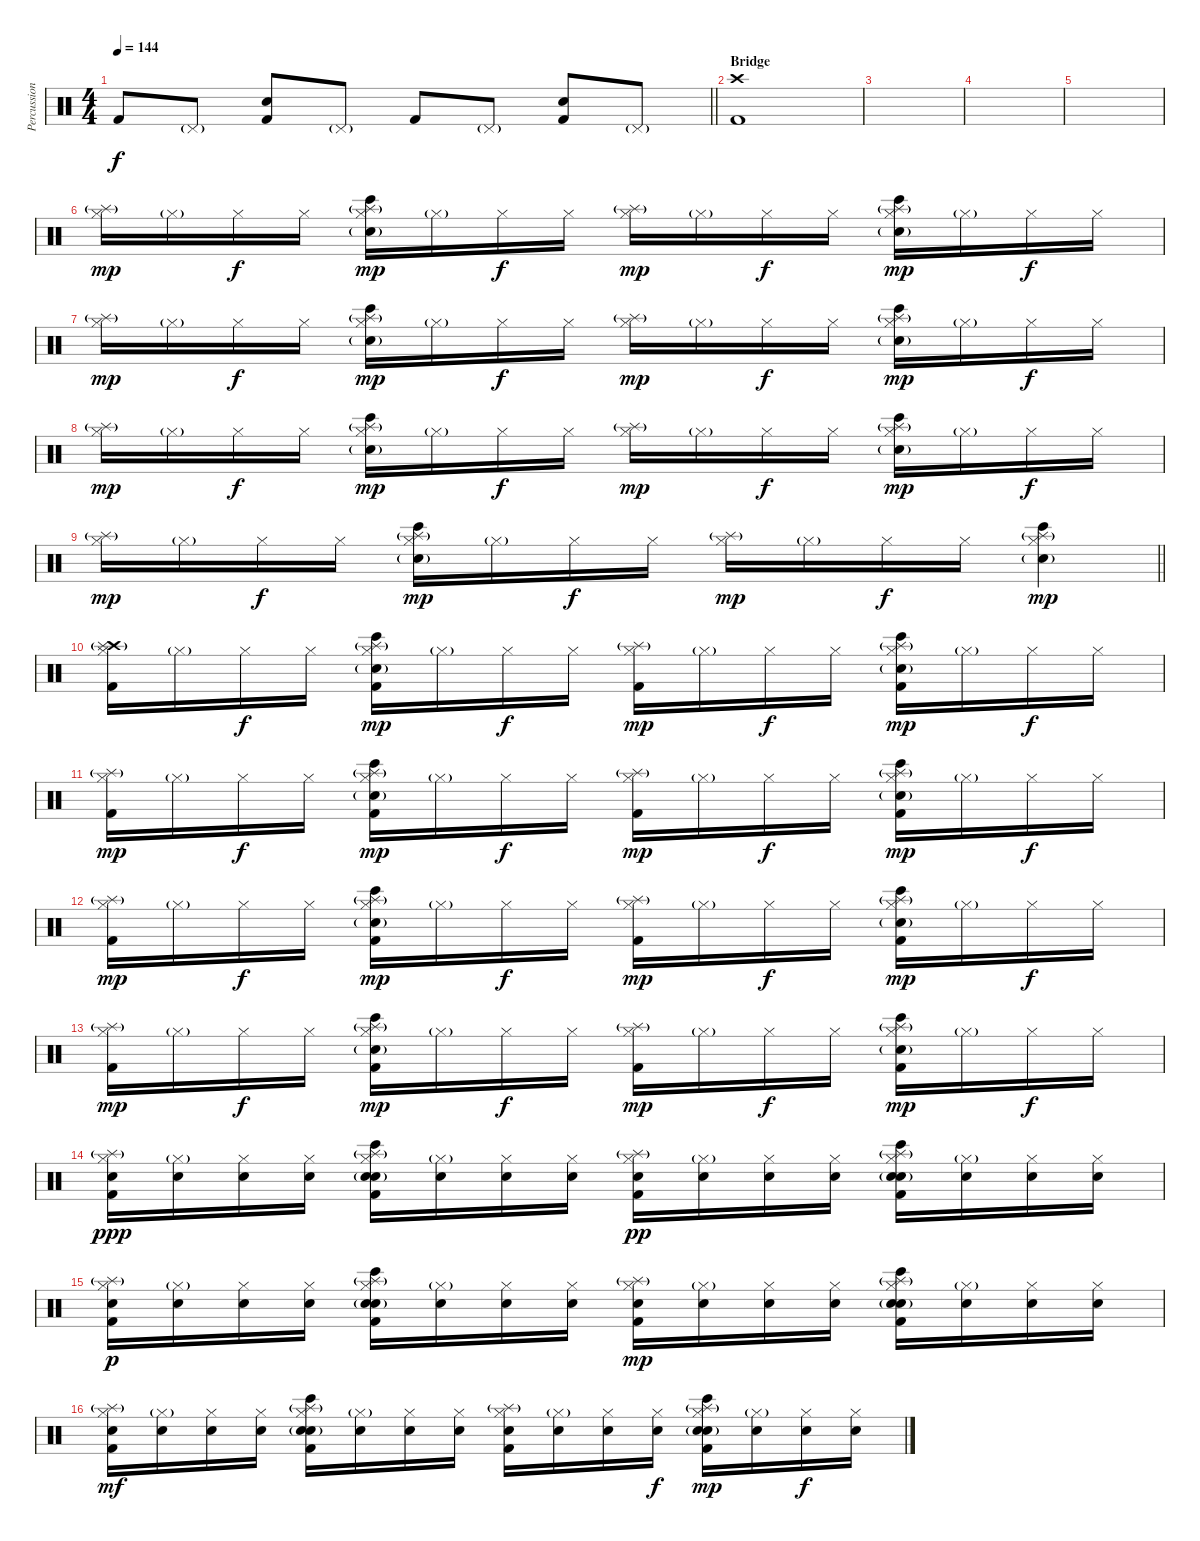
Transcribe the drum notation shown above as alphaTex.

\track ("Percussion" "Percussion") {instrument percussion}
\staff {score}
\articulation defaults
\ts (4 4)
\tempo 144
\clef neutral
\barLineRight lightlight
\ks c "Kick (hit) 2".8{dy f} "Pedal Hi-Hat (hit)"{g}.8
("Electric Snare (hit)" "Kick (hit) 2").8 "Pedal Hi-Hat (hit)"{g}.8 "Kick (hit) 2".8 "Pedal Hi-Hat (hit)"{g}.8 ("Electric Snare (hit)" "Kick (hit) 2").8 "Pedal Hi-Hat (hit)"{g}.8 |
\section ("" "Bridge")
("Crash high (hit)" "Kick (hit) 2").1 |
|
|
|
("Hi-Hat (closed)" "Splash (hit)"{g}).16{dy mp} "Hi-Hat (closed)"{g}.16 "Hi-Hat (closed)".16{dy f} "Hi-Hat (closed)".16 ("Hi-Hat (closed)" "Hand Clap (hit)"{g} "Splash (hit)"{g} "Bongo High (hit)").16{dy mp} "Hi-Hat (closed)"{g}.16 "Hi-Hat (closed)".16{dy f} "Hi-Hat (closed)".16 ("Hi-Hat (closed)" "Splash (hit)"{g}).16{dy mp} "Hi-Hat (closed)"{g}.16 "Hi-Hat (closed)".16{dy f} "Hi-Hat (closed)".16 ("Hi-Hat (closed)" "Hand Clap (hit)"{g} "Splash (hit)"{g} "Bongo High (hit)").16{dy mp} "Hi-Hat (closed)"{g}.16 "Hi-Hat (closed)".16{dy f} "Hi-Hat (closed)".16 |
("Hi-Hat (closed)" "Splash (hit)"{g}).16{dy mp} "Hi-Hat (closed)"{g}.16 "Hi-Hat (closed)".16{dy f} "Hi-Hat (closed)".16 ("Hi-Hat (closed)" "Hand Clap (hit)"{g} "Splash (hit)"{g} "Bongo High (hit)").16{dy mp} "Hi-Hat (closed)"{g}.16 "Hi-Hat (closed)".16{dy f} "Hi-Hat (closed)".16 ("Hi-Hat (closed)" "Splash (hit)"{g}).16{dy mp} "Hi-Hat (closed)"{g}.16 "Hi-Hat (closed)".16{dy f} "Hi-Hat (closed)".16 ("Hi-Hat (closed)" "Hand Clap (hit)"{g} "Splash (hit)"{g} "Bongo High (hit)").16{dy mp} "Hi-Hat (closed)"{g}.16 "Hi-Hat (closed)".16{dy f} "Hi-Hat (closed)".16 |
("Hi-Hat (closed)" "Splash (hit)"{g}).16{dy mp} "Hi-Hat (closed)"{g}.16 "Hi-Hat (closed)".16{dy f} "Hi-Hat (closed)".16 ("Hi-Hat (closed)" "Hand Clap (hit)"{g} "Splash (hit)"{g} "Bongo High (hit)").16{dy mp} "Hi-Hat (closed)"{g}.16 "Hi-Hat (closed)".16{dy f} "Hi-Hat (closed)".16 ("Hi-Hat (closed)" "Splash (hit)"{g}).16{dy mp} "Hi-Hat (closed)"{g}.16 "Hi-Hat (closed)".16{dy f} "Hi-Hat (closed)".16 ("Hi-Hat (closed)" "Hand Clap (hit)"{g} "Splash (hit)"{g} "Bongo High (hit)").16{dy mp} "Hi-Hat (closed)"{g}.16 "Hi-Hat (closed)".16{dy f} "Hi-Hat (closed)".16 |
\barLineRight lightlight
("Hi-Hat (closed)" "Splash (hit)"{g}).16{dy mp} "Hi-Hat (closed)"{g}.16 "Hi-Hat (closed)".16{dy f} "Hi-Hat (closed)".16 ("Hi-Hat (closed)" "Hand Clap (hit)"{g} "Splash (hit)"{g} "Bongo High (hit)").16{dy mp} "Hi-Hat (closed)"{g}.16 "Hi-Hat (closed)".16{dy f} "Hi-Hat (closed)".16 ("Hi-Hat (closed)" "Splash (hit)"{g}).16{dy mp} "Hi-Hat (closed)"{g}.16 "Hi-Hat (closed)".16{dy f} "Hi-Hat (closed)".16 ("Hi-Hat (closed)" "Hand Clap (hit)"{g} "Splash (hit)"{g} "Bongo High (hit)").4{dy mp} |
("Hi-Hat (closed)" "Crash high (hit)" "Splash (hit)"{g} "Kick (hit) 2").16 "Hi-Hat (closed)"{g}.16 "Hi-Hat (closed)".16{dy f} "Hi-Hat (closed)".16 ("Hi-Hat (closed)" "Hand Clap (hit)"{g} "Splash (hit)"{g} "Bongo High (hit)" "Kick (hit) 2").16{dy mp} "Hi-Hat (closed)"{g}.16 "Hi-Hat (closed)".16{dy f} "Hi-Hat (closed)".16 ("Hi-Hat (closed)" "Splash (hit)"{g} "Kick (hit) 2").16{dy mp} "Hi-Hat (closed)"{g}.16 "Hi-Hat (closed)".16{dy f} "Hi-Hat (closed)".16 ("Hi-Hat (closed)" "Hand Clap (hit)"{g} "Splash (hit)"{g} "Bongo High (hit)" "Kick (hit) 2").16{dy mp} "Hi-Hat (closed)"{g}.16 "Hi-Hat (closed)".16{dy f} "Hi-Hat (closed)".16 |
("Hi-Hat (closed)" "Splash (hit)"{g} "Kick (hit) 2").16{dy mp} "Hi-Hat (closed)"{g}.16 "Hi-Hat (closed)".16{dy f} "Hi-Hat (closed)".16 ("Hi-Hat (closed)" "Hand Clap (hit)"{g} "Splash (hit)"{g} "Bongo High (hit)" "Kick (hit) 2").16{dy mp} "Hi-Hat (closed)"{g}.16 "Hi-Hat (closed)".16{dy f} "Hi-Hat (closed)".16 ("Hi-Hat (closed)" "Splash (hit)"{g} "Kick (hit) 2").16{dy mp} "Hi-Hat (closed)"{g}.16 "Hi-Hat (closed)".16{dy f} "Hi-Hat (closed)".16 ("Hi-Hat (closed)" "Hand Clap (hit)"{g} "Splash (hit)"{g} "Bongo High (hit)" "Kick (hit) 2").16{dy mp} "Hi-Hat (closed)"{g}.16 "Hi-Hat (closed)".16{dy f} "Hi-Hat (closed)".16 |
("Hi-Hat (closed)" "Splash (hit)"{g} "Kick (hit) 2").16{dy mp} "Hi-Hat (closed)"{g}.16 "Hi-Hat (closed)".16{dy f} "Hi-Hat (closed)".16 ("Hi-Hat (closed)" "Hand Clap (hit)"{g} "Splash (hit)"{g} "Bongo High (hit)" "Kick (hit) 2").16{dy mp} "Hi-Hat (closed)"{g}.16 "Hi-Hat (closed)".16{dy f} "Hi-Hat (closed)".16 ("Hi-Hat (closed)" "Splash (hit)"{g} "Kick (hit) 2").16{dy mp} "Hi-Hat (closed)"{g}.16 "Hi-Hat (closed)".16{dy f} "Hi-Hat (closed)".16 ("Hi-Hat (closed)" "Hand Clap (hit)"{g} "Splash (hit)"{g} "Bongo High (hit)" "Kick (hit) 2").16{dy mp} "Hi-Hat (closed)"{g}.16 "Hi-Hat (closed)".16{dy f} "Hi-Hat (closed)".16 |
("Hi-Hat (closed)" "Splash (hit)"{g} "Kick (hit) 2").16{dy mp} "Hi-Hat (closed)"{g}.16 "Hi-Hat (closed)".16{dy f} "Hi-Hat (closed)".16 ("Hi-Hat (closed)" "Hand Clap (hit)"{g} "Splash (hit)"{g} "Bongo High (hit)" "Kick (hit) 2").16{dy mp} "Hi-Hat (closed)"{g}.16 "Hi-Hat (closed)".16{dy f} "Hi-Hat (closed)".16 ("Hi-Hat (closed)" "Splash (hit)"{g} "Kick (hit) 2").16{dy mp} "Hi-Hat (closed)"{g}.16 "Hi-Hat (closed)".16{dy f} "Hi-Hat (closed)".16 ("Hi-Hat (closed)" "Hand Clap (hit)"{g} "Splash (hit)"{g} "Bongo High (hit)" "Kick (hit) 2").16{dy mp} "Hi-Hat (closed)"{g}.16 "Hi-Hat (closed)".16{dy f} "Hi-Hat (closed)".16 |
("Hi-Hat (closed)" "Splash (hit)"{g} "Snare (hit) 2" "Kick (hit) 2").16{dy ppp} ("Hi-Hat (closed)"{g} "Snare (hit) 2").16 ("Hi-Hat (closed)" "Snare (hit) 2").16 ("Hi-Hat (closed)" "Snare (hit) 2").16 ("Hi-Hat (closed)" "Hand Clap (hit)"{g} "Splash (hit)"{g} "Bongo High (hit)" "Snare (hit) 2" "Kick (hit) 2").16 ("Hi-Hat (closed)"{g} "Snare (hit) 2").16 ("Hi-Hat (closed)" "Snare (hit) 2").16 ("Hi-Hat (closed)" "Snare (hit) 2").16 ("Hi-Hat (closed)" "Splash (hit)"{g} "Snare (hit) 2" "Kick (hit) 2").16{dy pp} ("Hi-Hat (closed)"{g} "Snare (hit) 2").16 ("Hi-Hat (closed)" "Snare (hit) 2").16 ("Hi-Hat (closed)" "Snare (hit) 2").16 ("Hi-Hat (closed)" "Hand Clap (hit)"{g} "Splash (hit)"{g} "Bongo High (hit)" "Snare (hit) 2" "Kick (hit) 2").16 ("Hi-Hat (closed)"{g} "Snare (hit) 2").16 ("Hi-Hat (closed)" "Snare (hit) 2").16 ("Hi-Hat (closed)" "Snare (hit) 2").16 |
("Hi-Hat (closed)" "Splash (hit)"{g} "Snare (hit) 2" "Kick (hit) 2").16{dy p} ("Hi-Hat (closed)"{g} "Snare (hit) 2").16 ("Hi-Hat (closed)" "Snare (hit) 2").16 ("Hi-Hat (closed)" "Snare (hit) 2").16 ("Hi-Hat (closed)" "Hand Clap (hit)"{g} "Splash (hit)"{g} "Bongo High (hit)" "Snare (hit) 2" "Kick (hit) 2").16 ("Hi-Hat (closed)"{g} "Snare (hit) 2").16 ("Hi-Hat (closed)" "Snare (hit) 2").16 ("Hi-Hat (closed)" "Snare (hit) 2").16 ("Hi-Hat (closed)" "Splash (hit)"{g} "Snare (hit) 2" "Kick (hit) 2").16{dy mp} ("Hi-Hat (closed)"{g} "Snare (hit) 2").16 ("Hi-Hat (closed)" "Snare (hit) 2").16 ("Hi-Hat (closed)" "Snare (hit) 2").16 ("Hi-Hat (closed)" "Hand Clap (hit)"{g} "Splash (hit)"{g} "Bongo High (hit)" "Snare (hit) 2" "Kick (hit) 2").16 ("Hi-Hat (closed)"{g} "Snare (hit) 2").16 ("Hi-Hat (closed)" "Snare (hit) 2").16 ("Hi-Hat (closed)" "Snare (hit) 2").16 |
("Hi-Hat (closed)" "Splash (hit)"{g} "Snare (hit) 2" "Kick (hit) 2").16{dy mf} ("Hi-Hat (closed)"{g} "Snare (hit) 2").16 ("Hi-Hat (closed)" "Snare (hit) 2").16 ("Hi-Hat (closed)" "Snare (hit) 2").16 ("Hi-Hat (closed)" "Hand Clap (hit)"{g} "Splash (hit)"{g} "Bongo High (hit)" "Snare (hit) 2" "Kick (hit) 2").16 ("Hi-Hat (closed)"{g} "Snare (hit) 2").16 ("Hi-Hat (closed)" "Snare (hit) 2").16 ("Hi-Hat (closed)" "Snare (hit) 2").16 ("Hi-Hat (closed)" "Splash (hit)"{g} "Snare (hit) 2" "Kick (hit) 2").16 ("Hi-Hat (closed)"{g} "Snare (hit) 2").16 ("Hi-Hat (closed)" "Snare (hit) 2").16 ("Hi-Hat (closed)" "Snare (hit) 2").16{dy f} ("Hi-Hat (closed)" "Hand Clap (hit)"{g} "Splash (hit)"{g} "Bongo High (hit)" "Snare (hit) 2" "Kick (hit) 2").16{dy mp} ("Hi-Hat (closed)"{g} "Snare (hit) 2").16 ("Hi-Hat (closed)" "Snare (hit) 2").16{dy f} ("Hi-Hat (closed)" "Snare (hit) 2").16
